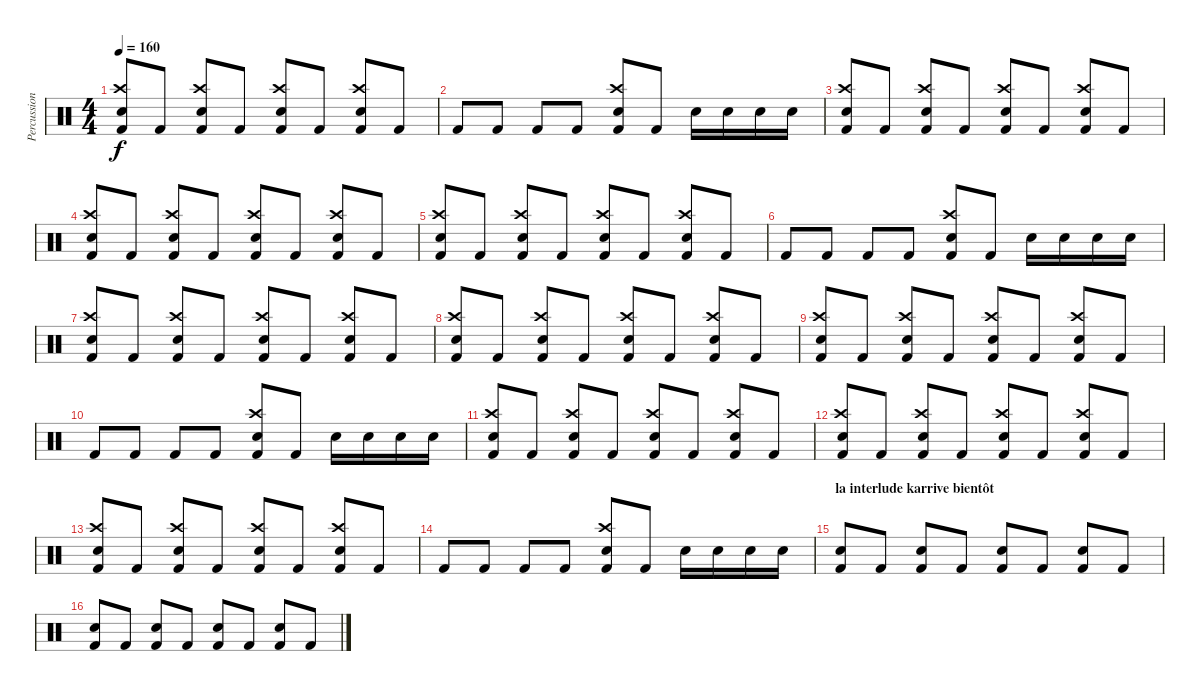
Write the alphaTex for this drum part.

\track ("Percussions" "Percussion") {instrument percussion}
\staff {score}
\articulation defaults
\ts (4 4)
\tempo 160
\clef neutral
\ks c
("Electric Snare (hit)" "Crash high (hit)" "Kick (hit) 2").8{dy f} "Kick (hit) 2".8 ("Electric Snare (hit)" "Crash high (hit)" "Kick (hit) 2").8 "Kick (hit) 2".8 ("Electric Snare (hit)" "Crash high (hit)" "Kick (hit) 2").8 "Kick (hit) 2".8 ("Electric Snare (hit)" "Crash high (hit)" "Kick (hit) 2").8 "Kick (hit) 2".8 |
"Kick (hit) 2".8 "Kick (hit) 2".8 "Kick (hit) 2".8 "Kick (hit) 2".8 ("Crash high (hit)" "Kick (hit) 2" "Electric Snare (hit)").8 "Kick (hit) 2".8 "Electric Snare (hit)".16 "Electric Snare (hit)".16 "Electric Snare (hit)".16 "Electric Snare (hit)".16 |
("Electric Snare (hit)" "Crash high (hit)" "Kick (hit) 2").8 "Kick (hit) 2".8 ("Electric Snare (hit)" "Crash high (hit)" "Kick (hit) 2").8 "Kick (hit) 2".8 ("Electric Snare (hit)" "Crash high (hit)" "Kick (hit) 2").8 "Kick (hit) 2".8 ("Electric Snare (hit)" "Crash high (hit)" "Kick (hit) 2").8 "Kick (hit) 2".8 |
("Electric Snare (hit)" "Crash high (hit)" "Kick (hit) 2").8 "Kick (hit) 2".8 ("Electric Snare (hit)" "Crash high (hit)" "Kick (hit) 2").8 "Kick (hit) 2".8 ("Electric Snare (hit)" "Crash high (hit)" "Kick (hit) 2").8 "Kick (hit) 2".8 ("Electric Snare (hit)" "Crash high (hit)" "Kick (hit) 2").8 "Kick (hit) 2".8 |
("Electric Snare (hit)" "Crash high (hit)" "Kick (hit) 2").8 "Kick (hit) 2".8 ("Electric Snare (hit)" "Crash high (hit)" "Kick (hit) 2").8 "Kick (hit) 2".8 ("Electric Snare (hit)" "Crash high (hit)" "Kick (hit) 2").8 "Kick (hit) 2".8 ("Electric Snare (hit)" "Crash high (hit)" "Kick (hit) 2").8 "Kick (hit) 2".8 |
"Kick (hit) 2".8 "Kick (hit) 2".8 "Kick (hit) 2".8 "Kick (hit) 2".8 ("Crash high (hit)" "Kick (hit) 2" "Electric Snare (hit)").8 "Kick (hit) 2".8 "Electric Snare (hit)".16 "Electric Snare (hit)".16 "Electric Snare (hit)".16 "Electric Snare (hit)".16 |
("Electric Snare (hit)" "Crash high (hit)" "Kick (hit) 2").8 "Kick (hit) 2".8 ("Electric Snare (hit)" "Crash high (hit)" "Kick (hit) 2").8 "Kick (hit) 2".8 ("Electric Snare (hit)" "Crash high (hit)" "Kick (hit) 2").8 "Kick (hit) 2".8 ("Electric Snare (hit)" "Crash high (hit)" "Kick (hit) 2").8 "Kick (hit) 2".8 |
("Electric Snare (hit)" "Crash high (hit)" "Kick (hit) 2").8 "Kick (hit) 2".8 ("Electric Snare (hit)" "Crash high (hit)" "Kick (hit) 2").8 "Kick (hit) 2".8 ("Electric Snare (hit)" "Crash high (hit)" "Kick (hit) 2").8 "Kick (hit) 2".8 ("Electric Snare (hit)" "Crash high (hit)" "Kick (hit) 2").8 "Kick (hit) 2".8 |
("Electric Snare (hit)" "Crash high (hit)" "Kick (hit) 2").8 "Kick (hit) 2".8 ("Electric Snare (hit)" "Crash high (hit)" "Kick (hit) 2").8 "Kick (hit) 2".8 ("Electric Snare (hit)" "Crash high (hit)" "Kick (hit) 2").8 "Kick (hit) 2".8 ("Electric Snare (hit)" "Crash high (hit)" "Kick (hit) 2").8 "Kick (hit) 2".8 |
"Kick (hit) 2".8 "Kick (hit) 2".8 "Kick (hit) 2".8 "Kick (hit) 2".8 ("Crash high (hit)" "Kick (hit) 2" "Electric Snare (hit)").8 "Kick (hit) 2".8 "Electric Snare (hit)".16 "Electric Snare (hit)".16 "Electric Snare (hit)".16 "Electric Snare (hit)".16 |
("Electric Snare (hit)" "Crash high (hit)" "Kick (hit) 2").8 "Kick (hit) 2".8 ("Electric Snare (hit)" "Crash high (hit)" "Kick (hit) 2").8 "Kick (hit) 2".8 ("Electric Snare (hit)" "Crash high (hit)" "Kick (hit) 2").8 "Kick (hit) 2".8 ("Electric Snare (hit)" "Crash high (hit)" "Kick (hit) 2").8 "Kick (hit) 2".8 |
("Electric Snare (hit)" "Crash high (hit)" "Kick (hit) 2").8 "Kick (hit) 2".8 ("Electric Snare (hit)" "Crash high (hit)" "Kick (hit) 2").8 "Kick (hit) 2".8 ("Electric Snare (hit)" "Crash high (hit)" "Kick (hit) 2").8 "Kick (hit) 2".8 ("Electric Snare (hit)" "Crash high (hit)" "Kick (hit) 2").8 "Kick (hit) 2".8 |
("Electric Snare (hit)" "Crash high (hit)" "Kick (hit) 2").8 "Kick (hit) 2".8 ("Electric Snare (hit)" "Crash high (hit)" "Kick (hit) 2").8 "Kick (hit) 2".8 ("Electric Snare (hit)" "Crash high (hit)" "Kick (hit) 2").8 "Kick (hit) 2".8 ("Electric Snare (hit)" "Crash high (hit)" "Kick (hit) 2").8 "Kick (hit) 2".8 |
"Kick (hit) 2".8 "Kick (hit) 2".8 "Kick (hit) 2".8 "Kick (hit) 2".8 ("Crash high (hit)" "Kick (hit) 2" "Electric Snare (hit)").8 "Kick (hit) 2".8 "Electric Snare (hit)".16 "Electric Snare (hit)".16 "Electric Snare (hit)".16 "Electric Snare (hit)".16 |
\section ("" "la interlude karrive bientôt")
("Electric Snare (hit)" "Kick (hit) 2").8 "Kick (hit) 2".8 ("Electric Snare (hit)" "Kick (hit) 2").8 "Kick (hit) 2".8 ("Electric Snare (hit)" "Kick (hit) 2").8 "Kick (hit) 2".8 ("Electric Snare (hit)" "Kick (hit) 2").8 "Kick (hit) 2".8 |
("Electric Snare (hit)" "Kick (hit) 2").8 "Kick (hit) 2".8 ("Electric Snare (hit)" "Kick (hit) 2").8 "Kick (hit) 2".8 ("Electric Snare (hit)" "Kick (hit) 2").8 "Kick (hit) 2".8 ("Electric Snare (hit)" "Kick (hit) 2").8 "Kick (hit) 2".8
